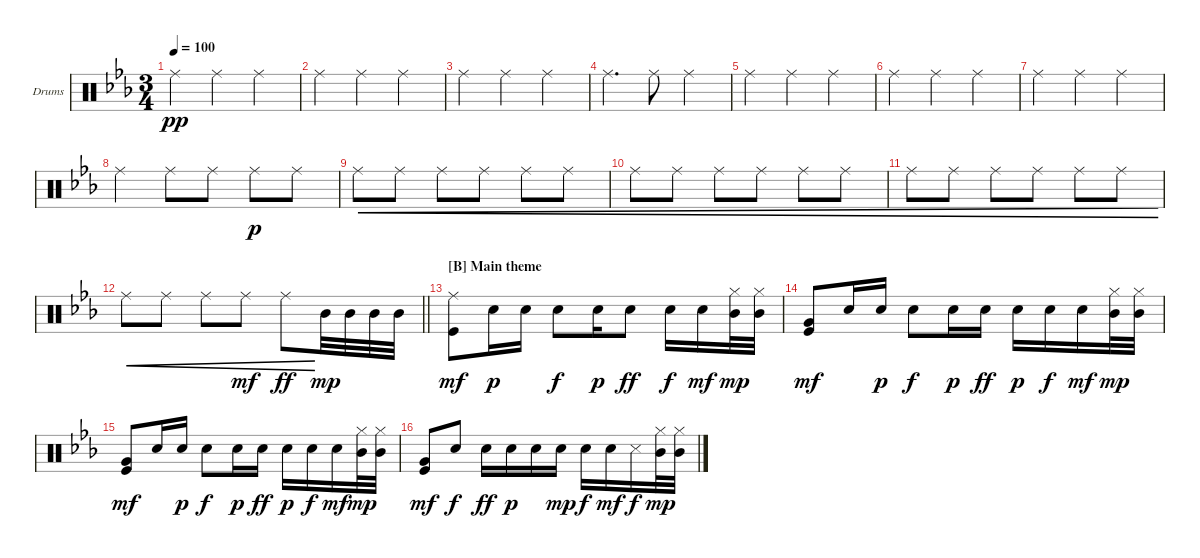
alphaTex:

\defaultSystemsLayout 4
\bracketExtendMode groupsimilarinstruments
\firstSystemTrackNameOrientation horizontal
\otherSystemsTrackNameOrientation horizontal
\track ("Drumkit" "Drums") {instrument percussion}
\staff {score}
\articulation defaults
\ts (3 4)
\tempo 100
\clef neutral
\ks cminor "Ride (middle)".4{dy pp} "Ride (middle)".4 "Ride (middle)".4
|
"Ride (middle)".4 "Ride (middle)".4 "Ride (middle)".4 |
"Ride (middle)".4 "Ride (middle)".4 "Ride (middle)".4 |
"Ride (middle)".4{d} "Ride (middle)".8 "Ride (middle)".4 |
"Ride (middle)".4 "Ride (middle)".4 "Ride (middle)".4 |
"Ride (middle)".4 "Ride (middle)".4 "Ride (middle)".4 |
"Ride (middle)".4 "Ride (middle)".4 "Ride (middle)".4 |
"Ride (middle)".4 "Ride (middle)".8 "Ride (middle)".8 "Ride (middle)".8{dy p} "Ride (middle)".8 |
"Ride (middle)".8{cre} "Ride (middle)".8{cre} "Ride (middle)".8{cre} "Ride (middle)".8{cre} "Ride (middle)".8{cre} "Ride (middle)".8{cre} |
"Ride (middle)".8{cre} "Ride (middle)".8{cre} "Ride (middle)".8{cre} "Ride (middle)".8{cre} "Ride (middle)".8{cre} "Ride (middle)".8{cre} |
"Ride (middle)".8{cre} "Ride (middle)".8{cre} "Ride (middle)".8{cre} "Ride (middle)".8{cre} "Ride (middle)".8{cre} "Ride (middle)".8{cre} |
\barLineRight lightlight "Ride (middle)".8{cre} "Ride (middle)".8{cre} "Ride (middle)".8{cre} "Ride (middle)".8{cre dy mf} "Ride (middle)".8{cre dy ff} "Mid Tom (hit)".32{dy mp} "Mid Tom (hit)".32 "Mid Tom (hit)".32 "Mid Tom (hit)".32
|
\section ("B" "Main theme")
("Kick (hit)" "Ride (middle)").8{dy mf} "Snare (hit) 2".16{dy p} "Snare (hit) 2".16 "Snare (hit) 2".8{dy f} "Snare (hit) 2".16{dy p} "Snare (hit) 2".8{dy ff} "Snare (hit) 2".16{dy f} "Snare (hit) 2".16{dy mf} ("Hi-Hat (closed)" "Mid Tom (hit)").32{dy mp} ("Hi-Hat (closed)" "Mid Tom (hit)").32 |
("Kick (hit)" "Very Low Tom (hit)").8{dy mf} "Snare (hit) 2".16 "Snare (hit) 2".16{dy p} "Snare (hit) 2".8{dy f} "Snare (hit) 2".16{dy p} "Snare (hit) 2".16{dy ff} "Snare (hit) 2".16{dy p} "Snare (hit) 2".16{dy f} "Snare (hit) 2".16{dy mf} ("Mid Tom (hit)" "Hi-Hat (closed)").32{dy mp} ("Mid Tom (hit)" "Hi-Hat (closed)").32 |
("Kick (hit)" "Very Low Tom (hit)").8{dy mf} "Snare (hit) 2".16 "Snare (hit) 2".16{dy p} "Snare (hit) 2".8{dy f} "Snare (hit) 2".16{dy p} "Snare (hit) 2".16{dy ff} "Snare (hit) 2".16{dy p} "Snare (hit) 2".16{dy f} "Snare (hit) 2".16{dy mf} ("Mid Tom (hit)" "Hi-Hat (closed)").32{dy mp} ("Mid Tom (hit)" "Hi-Hat (closed)").32 |
("Kick (hit)" "Very Low Tom (hit)").8{dy mf} "Snare (hit) 2".8{dy f} "Snare (hit) 2".16{dy ff} "Snare (hit) 2".16{dy p} "Snare (hit) 2".16 "Snare (hit) 2".16{dy mp} "Snare (hit) 2".16{dy f} "Snare (hit) 2".16{dy mf} "Snare (side stick) 3".16{dy f} ("Mid Tom (hit)" "Hi-Hat (closed)").32{dy mp} ("Mid Tom (hit)" "Hi-Hat (closed)").32
